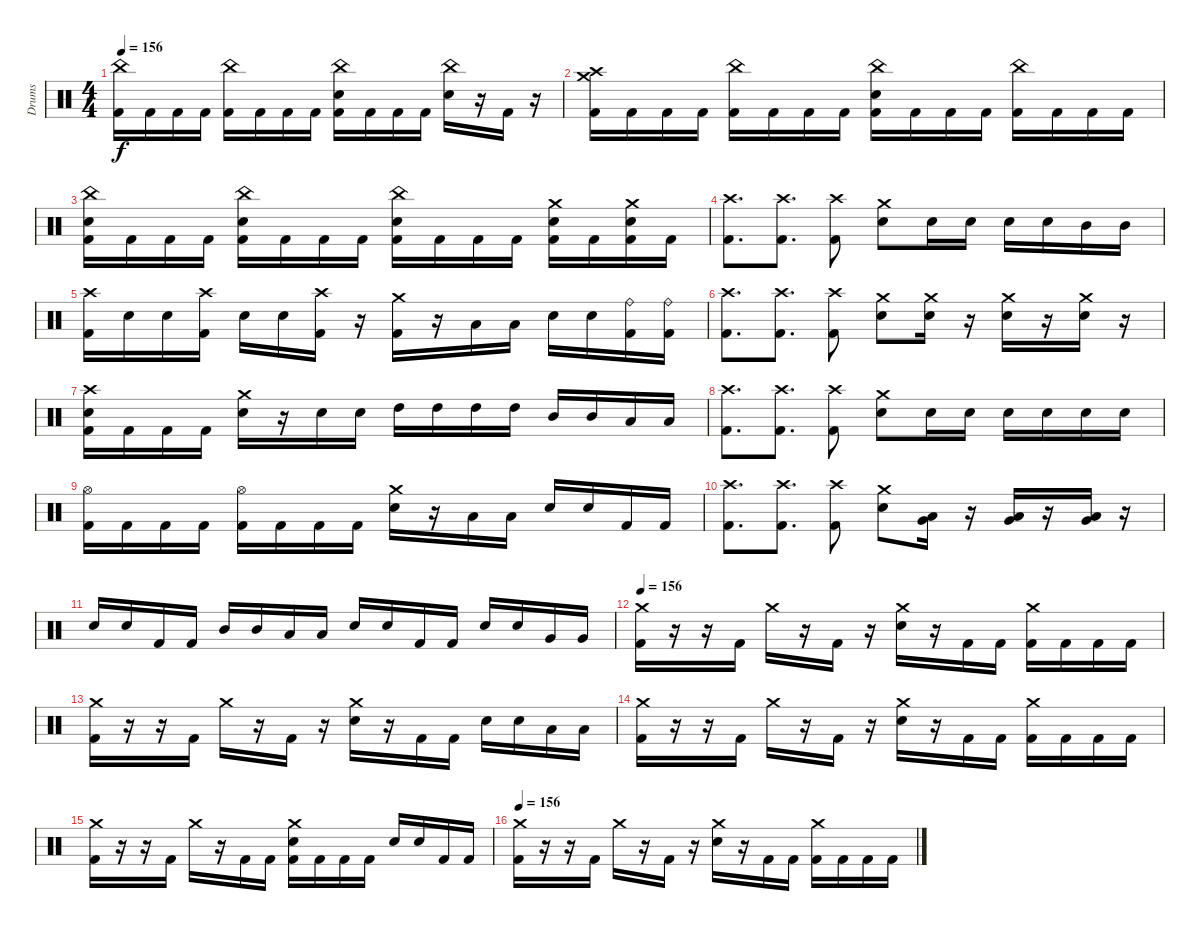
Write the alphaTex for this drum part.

\track ("Drums" "Drums") {instrument percussion}
\staff {score}
\articulation defaults
\ts (4 4)
\tempo 156
\clef neutral
\ks c
("China (hit)" "Kick (hit) 2").16{dy f} "Kick (hit) 2".16 "Kick (hit) 2".16 "Kick (hit) 2".16 ("China (hit)" "Kick (hit) 2").16 "Kick (hit) 2".16 "Kick (hit) 2".16 "Kick (hit) 2".16 ("China (hit)" "Snare (hit) 2" "Kick (hit) 2").16 "Kick (hit) 2".16 "Kick (hit) 2".16 "Kick (hit) 2".16 ("China (hit)" "Snare (hit) 2").16 r.16 "Kick (hit) 2".16 r.16 |
("Crash high (hit)" "Crash medium (hit)" "Kick (hit) 2").16 "Kick (hit) 2".16 "Kick (hit) 2".16 "Kick (hit) 2".16 ("China (hit)" "Kick (hit) 2").16 "Kick (hit) 2".16 "Kick (hit) 2".16 "Kick (hit) 2".16 ("China (hit)" "Snare (hit) 2" "Kick (hit) 2").16 "Kick (hit) 2".16 "Kick (hit) 2".16 "Kick (hit) 2".16 ("China (hit)" "Kick (hit) 2").16 "Kick (hit) 2".16 "Kick (hit) 2".16 "Kick (hit) 2".16 |
("China (hit)" "Snare (hit) 2" "Kick (hit) 2").16 "Kick (hit) 2".16 "Kick (hit) 2".16 "Kick (hit) 2".16 ("China (hit)" "Snare (hit) 2" "Kick (hit) 2").16 "Kick (hit) 2".16 "Kick (hit) 2".16 "Kick (hit) 2".16 ("China (hit)" "Snare (hit) 2" "Kick (hit) 2").16 "Kick (hit) 2".16 "Kick (hit) 2".16 "Kick (hit) 2".16 ("Crash medium (hit)" "Snare (hit) 2" "Kick (hit) 2").16 "Kick (hit) 2".16 ("Crash medium (hit)" "Snare (hit) 2" "Kick (hit) 2").16 "Kick (hit) 2".16 |
("Crash high (hit)" "Kick (hit) 2").8{d} ("Crash high (hit)" "Kick (hit) 2").8{d} ("Crash high (hit)" "Kick (hit) 2").8 ("Crash medium (hit)" "Snare (hit) 2").8 "Snare (hit) 2".16 "Snare (hit) 2".16 "Snare (hit) 2".16 "Snare (hit) 2".16 "Mid Tom (hit)".16 "Mid Tom (hit)".16 |
("Crash high (hit)" "Kick (hit) 2").16 "Snare (hit) 2".16 "Snare (hit) 2".16 ("Crash high (hit)" "Kick (hit) 2").16 "Snare (hit) 2".16 "Snare (hit) 2".16 ("Crash high (hit)" "Kick (hit) 2").16 r.16 ("Crash medium (hit)" "Kick (hit) 2").16 r.16 "Low Tom (hit)".16 "Low Tom (hit)".16 "Snare (hit) 2".16 "Snare (hit) 2".16 ("Ride (bell)" "Kick (hit) 2").16 ("Ride (bell)" "Kick (hit) 2").16 |
("Crash high (hit)" "Kick (hit) 2").8{d} ("Crash high (hit)" "Kick (hit) 2").8{d} ("Crash high (hit)" "Kick (hit) 2").8 ("Crash medium (hit)" "Snare (hit) 2").8 ("Crash medium (hit)" "Snare (hit) 2").16 r.16 ("Crash medium (hit)" "Snare (hit) 2").16 r.16 ("Crash medium (hit)" "Snare (hit) 2").16 r.16 |
("Crash high (hit)" "Snare (hit) 2" "Kick (hit) 2").16 "Kick (hit) 2".16 "Kick (hit) 2".16 "Kick (hit) 2".16 ("Crash medium (hit)" "Snare (hit) 2").16 r.16 "Snare (hit) 2".16 "Snare (hit) 2".16 "High Tom (hit)".16 "High Tom (hit)".16 "High Tom (hit)".16 "High Tom (hit)".16 "Mid Tom (hit)".16 "Mid Tom (hit)".16 "Low Tom (hit)".16 "Low Tom (hit)".16 |
("Crash high (hit)" "Kick (hit) 2").8{d} ("Crash high (hit)" "Kick (hit) 2").8{d} ("Crash high (hit)" "Kick (hit) 2").8 ("Crash medium (hit)" "Snare (hit) 2").8 "Snare (hit) 2".16 "Snare (hit) 2".16 "Snare (hit) 2".16 "Snare (hit) 2".16 "Snare (hit) 2".16 "Snare (hit) 2".16 |
("Hi-Hat (open)" "Kick (hit) 2").16 "Kick (hit) 2".16 "Kick (hit) 2".16 "Kick (hit) 2".16 ("Hi-Hat (open)" "Kick (hit) 2").16 "Kick (hit) 2".16 "Kick (hit) 2".16 "Kick (hit) 2".16 ("Crash medium (hit)" "Snare (hit) 2").16 r.16 "Low Tom (hit)".16 "Low Tom (hit)".16 "Snare (hit) 2".16 "Snare (hit) 2".16 "Kick (hit) 2".16 "Kick (hit) 2".16 |
("Crash high (hit)" "Kick (hit) 2").8{d} ("Crash high (hit)" "Kick (hit) 2").8{d} ("Crash high (hit)" "Kick (hit) 2").8 ("Crash medium (hit)" "Snare (hit) 2").8 ("Low Floor Tom (hit)" "Very Low Tom (hit)").16 r.16 ("Low Floor Tom (hit)" "Very Low Tom (hit)").16 r.16 ("Low Floor Tom (hit)" "Very Low Tom (hit)").16 r.16 |
"Snare (hit) 2".16 "Snare (hit) 2".16 "Kick (hit) 2".16 "Kick (hit) 2".16 "Mid Tom (hit)".16 "Mid Tom (hit)".16 "Low Tom (hit)".16 "Low Tom (hit)".16 "Snare (hit) 2".16 "Snare (hit) 2".16 "Kick (hit) 2".16 "Kick (hit) 2".16 "Snare (hit) 2".16 "Snare (hit) 2".16 "Very Low Tom (hit)".16 "Very Low Tom (hit)".16 |
\tempo 156
("Crash medium (hit)" "Kick (hit) 2").16 r.16 r.16 "Kick (hit) 2".16 "Crash medium (hit)".16 r.16 "Kick (hit) 2".16 r.16 ("Crash medium (hit)" "Snare (hit) 2").16 r.16 "Kick (hit) 2".16 "Kick (hit) 2".16 ("Crash medium (hit)" "Kick (hit) 2").16 "Kick (hit) 2".16 "Kick (hit) 2".16 "Kick (hit) 2".16 |
("Crash medium (hit)" "Kick (hit) 2").16 r.16 r.16 "Kick (hit) 2".16 "Crash medium (hit)".16 r.16 "Kick (hit) 2".16 r.16 ("Crash medium (hit)" "Snare (hit) 2").16 r.16 "Kick (hit) 2".16 "Kick (hit) 2".16 "Snare (hit) 2".16 "Snare (hit) 2".16 "Low Tom (hit)".16 "Low Tom (hit)".16 |
("Crash medium (hit)" "Kick (hit) 2").16 r.16 r.16 "Kick (hit) 2".16 "Crash medium (hit)".16 r.16 "Kick (hit) 2".16 r.16 ("Crash medium (hit)" "Snare (hit) 2").16 r.16 "Kick (hit) 2".16 "Kick (hit) 2".16 ("Crash medium (hit)" "Kick (hit) 2").16 "Kick (hit) 2".16 "Kick (hit) 2".16 "Kick (hit) 2".16 |
("Crash medium (hit)" "Kick (hit) 2").16 r.16 r.16 "Kick (hit) 2".16 "Crash medium (hit)".16 r.16 "Kick (hit) 2".16 "Kick (hit) 2".16 ("Crash medium (hit)" "Snare (hit) 2" "Kick (hit) 2").16 "Kick (hit) 2".16 "Kick (hit) 2".16 "Kick (hit) 2".16 "Snare (hit) 2".16 "Snare (hit) 2".16 "Kick (hit) 2".16 "Kick (hit) 2".16 |
\tempo 156
("Crash medium (hit)" "Kick (hit) 2").16 r.16 r.16 "Kick (hit) 2".16 "Crash medium (hit)".16 r.16 "Kick (hit) 2".16 r.16 ("Crash medium (hit)" "Snare (hit) 2").16 r.16 "Kick (hit) 2".16 "Kick (hit) 2".16 ("Crash medium (hit)" "Kick (hit) 2").16 "Kick (hit) 2".16 "Kick (hit) 2".16 "Kick (hit) 2".16
